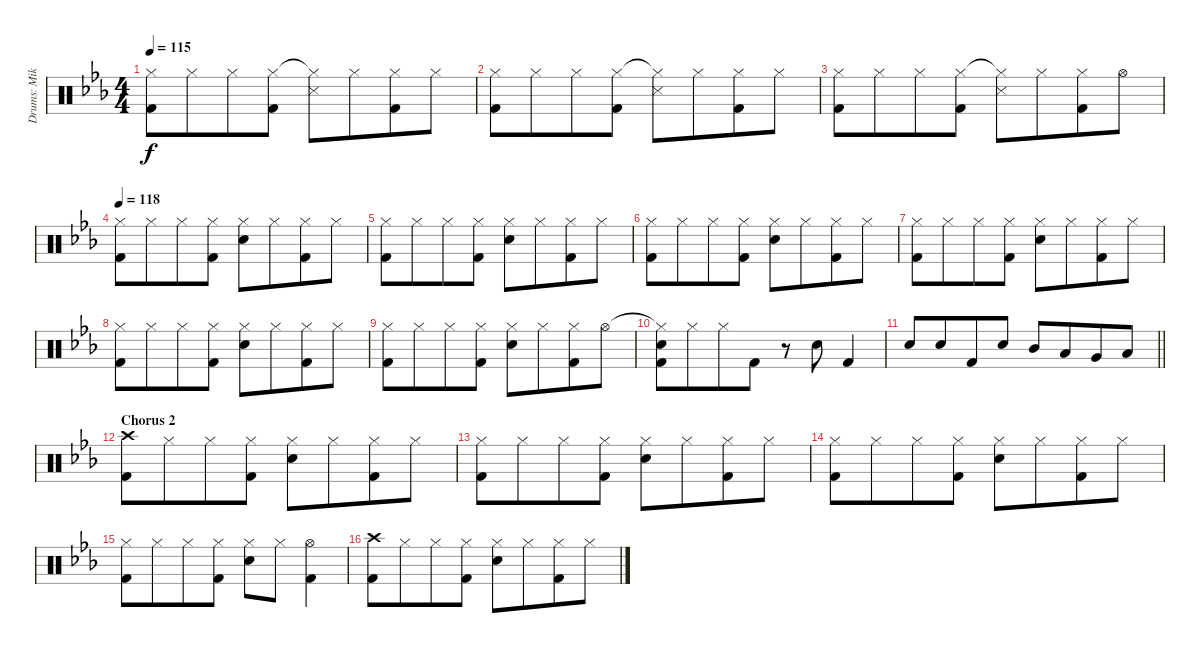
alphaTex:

\track ("Drums: Mike" "Drums: Mik") {instrument percussion}
\staff {score}
\articulation defaults
\ts (4 4)
\tempo 115
\clef neutral
\ks eb
("Hi-Hat (closed)" "Kick (hit) 2").8{dy f} "Hi-Hat (closed)".8{beam merge} "Hi-Hat (closed)".8 ("Hi-Hat (closed)" "Kick (hit) 2").8 ("Hi-Hat (closed)"{t} "Snare (side stick) 3").8 "Hi-Hat (closed)".8{beam merge} ("Hi-Hat (closed)" "Kick (hit) 2").8 "Hi-Hat (closed)".8 |
("Hi-Hat (closed)" "Kick (hit) 2").8 "Hi-Hat (closed)".8{beam merge} "Hi-Hat (closed)".8 ("Hi-Hat (closed)" "Kick (hit) 2").8 ("Hi-Hat (closed)"{t} "Snare (side stick) 3").8 "Hi-Hat (closed)".8{beam merge} ("Hi-Hat (closed)" "Kick (hit) 2").8 "Hi-Hat (closed)".8 |
("Hi-Hat (closed)" "Kick (hit) 2").8 "Hi-Hat (closed)".8{beam merge} "Hi-Hat (closed)".8 ("Hi-Hat (closed)" "Kick (hit) 2").8 ("Hi-Hat (closed)"{t} "Snare (side stick) 3").8 "Hi-Hat (closed)".8{beam merge} ("Hi-Hat (closed)" "Kick (hit) 2").8 "Hi-Hat (open)".8 |
\tempo 118
("Hi-Hat (closed)" "Kick (hit) 2").8 "Hi-Hat (closed)".8{beam merge} "Hi-Hat (closed)".8 ("Hi-Hat (closed)" "Kick (hit) 2").8 ("Hi-Hat (closed)" "Electric Snare (hit)").8 "Hi-Hat (closed)".8{beam merge} ("Hi-Hat (closed)" "Kick (hit) 2").8 "Hi-Hat (closed)".8 |
("Hi-Hat (closed)" "Kick (hit) 2").8 "Hi-Hat (closed)".8{beam merge} "Hi-Hat (closed)".8 ("Hi-Hat (closed)" "Kick (hit) 2").8 ("Hi-Hat (closed)" "Electric Snare (hit)").8 "Hi-Hat (closed)".8{beam merge} ("Hi-Hat (closed)" "Kick (hit) 2").8 "Hi-Hat (closed)".8 |
("Hi-Hat (closed)" "Kick (hit) 2").8 "Hi-Hat (closed)".8{beam merge} "Hi-Hat (closed)".8 ("Hi-Hat (closed)" "Kick (hit) 2").8 ("Hi-Hat (closed)" "Electric Snare (hit)").8 "Hi-Hat (closed)".8{beam merge} ("Hi-Hat (closed)" "Kick (hit) 2").8 "Hi-Hat (closed)".8 |
("Hi-Hat (closed)" "Kick (hit) 2").8 "Hi-Hat (closed)".8{beam merge} "Hi-Hat (closed)".8 ("Hi-Hat (closed)" "Kick (hit) 2").8 ("Hi-Hat (closed)" "Electric Snare (hit)").8 "Hi-Hat (closed)".8{beam merge} ("Hi-Hat (closed)" "Kick (hit) 2").8 "Hi-Hat (closed)".8 |
("Hi-Hat (closed)" "Kick (hit) 2").8 "Hi-Hat (closed)".8{beam merge} "Hi-Hat (closed)".8 ("Hi-Hat (closed)" "Kick (hit) 2").8 ("Hi-Hat (closed)" "Electric Snare (hit)").8 "Hi-Hat (closed)".8{beam merge} ("Hi-Hat (closed)" "Kick (hit) 2").8 "Hi-Hat (closed)".8 |
("Hi-Hat (closed)" "Kick (hit) 2").8 "Hi-Hat (closed)".8{beam merge} "Hi-Hat (closed)".8 ("Hi-Hat (closed)" "Kick (hit) 2").8 ("Hi-Hat (closed)" "Electric Snare (hit)").8 "Hi-Hat (closed)".8{beam merge} ("Hi-Hat (closed)" "Kick (hit) 2").8 "Hi-Hat (open)".8 |
("Hi-Hat (closed)"{t} "Snare (hit) 2" "Kick (hit) 2").8 "Hi-Hat (closed)".8{beam merge} "Hi-Hat (closed)".8 "Kick (hit) 2".8 r.8 "Electric Snare (hit)".8 "Kick (hit) 2".4 |
\barLineRight lightlight "Electric Snare (hit)".8 "Electric Snare (hit)".8{beam merge} "Kick (hit) 2".8 "Electric Snare (hit)".8 "Mid Tom (hit)".8 "Low Tom (hit)".8{beam merge} "Very Low Tom (hit)".8 "Low Floor Tom (hit)".8
|
\section ("" "Chorus 2")
("Crash high (hit)" "Kick (hit) 2").8 "Hi-Hat (closed)".8{beam merge} "Hi-Hat (closed)".8 ("Hi-Hat (closed)" "Kick (hit) 2").8 ("Hi-Hat (closed)" "Electric Snare (hit)").8 "Hi-Hat (closed)".8{beam merge} ("Hi-Hat (closed)" "Kick (hit) 2").8 "Hi-Hat (closed)".8 |
("Hi-Hat (closed)" "Kick (hit) 2").8 "Hi-Hat (closed)".8{beam merge} "Hi-Hat (closed)".8 ("Hi-Hat (closed)" "Kick (hit) 2").8 ("Hi-Hat (closed)" "Electric Snare (hit)").8 "Hi-Hat (closed)".8{beam merge} ("Hi-Hat (closed)" "Kick (hit) 2").8 "Hi-Hat (closed)".8 |
("Hi-Hat (closed)" "Kick (hit) 2").8 "Hi-Hat (closed)".8{beam merge} "Hi-Hat (closed)".8 ("Hi-Hat (closed)" "Kick (hit) 2").8 ("Hi-Hat (closed)" "Electric Snare (hit)").8 "Hi-Hat (closed)".8{beam merge} ("Hi-Hat (closed)" "Kick (hit) 2").8 "Hi-Hat (closed)".8 |
("Hi-Hat (closed)" "Kick (hit) 2").8 "Hi-Hat (closed)".8{beam merge} "Hi-Hat (closed)".8 ("Hi-Hat (closed)" "Kick (hit) 2").8 ("Hi-Hat (closed)" "Electric Snare (hit)").8 "Hi-Hat (closed)".8{beam merge} ("Hi-Hat (open)" "Kick (hit) 2").4 |
("Crash high (hit)" "Kick (hit) 2").8 "Hi-Hat (closed)".8{beam merge} "Hi-Hat (closed)".8 ("Hi-Hat (closed)" "Kick (hit) 2").8 ("Hi-Hat (closed)" "Electric Snare (hit)").8 "Hi-Hat (closed)".8{beam merge} ("Hi-Hat (closed)" "Kick (hit) 2").8 "Hi-Hat (closed)".8
